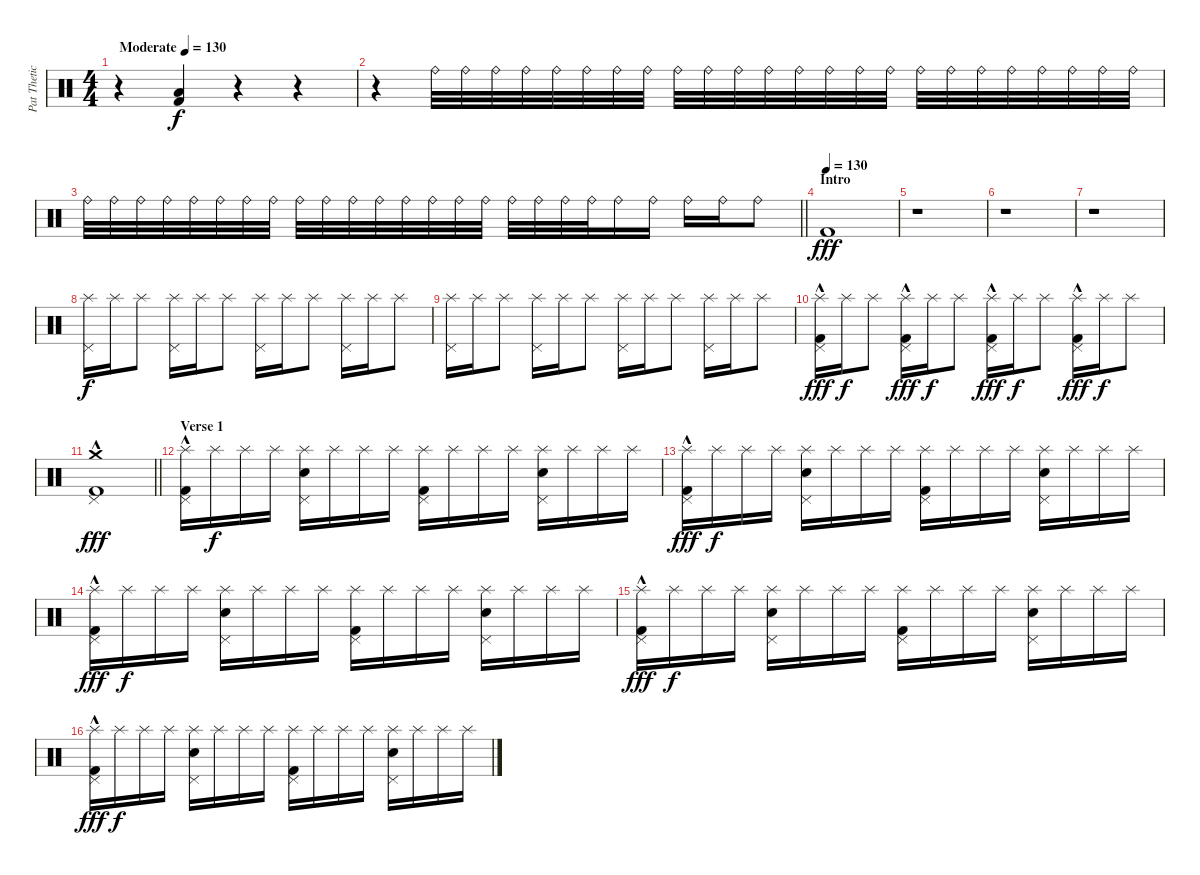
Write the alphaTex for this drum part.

\track ("Pat Thetic Drums" "Pat Thetic") {instrument percussion}
\staff {score}
\articulation defaults
\ts (4 4)
\tempo (130 "Moderate")
\tempo 100
\tempo (130 "Moderate")
\clef neutral
\ks c
r.4{dy f} ("Kick (hit) 2" "Low Floor Tom (hit)").4 r.4 r.4 |
r.4{volume 0} "Ride (bell)".32{volume 10} "Ride (bell)".32 "Ride (bell)".32 "Ride (bell)".32 "Ride (bell)".32 "Ride (bell)".32 "Ride (bell)".32 "Ride (bell)".32 "Ride (bell)".32 "Ride (bell)".32 "Ride (bell)".32 "Ride (bell)".32 "Ride (bell)".32 "Ride (bell)".32 "Ride (bell)".32 "Ride (bell)".32 "Ride (bell)".32 "Ride (bell)".32 "Ride (bell)".32 "Ride (bell)".32 "Ride (bell)".32 "Ride (bell)".32 "Ride (bell)".32 "Ride (bell)".32 |
\barLineRight lightlight "Ride (bell)".32 "Ride (bell)".32 "Ride (bell)".32 "Ride (bell)".32 "Ride (bell)".32 "Ride (bell)".32 "Ride (bell)".32 "Ride (bell)".32 "Ride (bell)".32 "Ride (bell)".32 "Ride (bell)".32 "Ride (bell)".32 "Ride (bell)".32 "Ride (bell)".32 "Ride (bell)".32 "Ride (bell)".32 "Ride (bell)".32 "Ride (bell)".32 "Ride (bell)".32 "Ride (bell)".32 "Ride (bell)".16 "Ride (bell)".16 "Ride (bell)".16 "Ride (bell)".16 "Ride (bell)".8
|
\section ("" "Intro")
\tempo (130)
"Kick (hit) 2".1{dy fff} |
r.1 |
r.1 |
r.1 |
("Splash (hit)" "Pedal Hi-Hat (hit)").16{dy f volume 16} "Splash (hit)".16 "Splash (hit)".8 ("Splash (hit)" "Pedal Hi-Hat (hit)").16 "Splash (hit)".16 "Splash (hit)".8 ("Splash (hit)" "Pedal Hi-Hat (hit)").16 "Splash (hit)".16 "Splash (hit)".8 ("Splash (hit)" "Pedal Hi-Hat (hit)").16 "Splash (hit)".16 "Splash (hit)".8 |
("Splash (hit)" "Pedal Hi-Hat (hit)").16 "Splash (hit)".16 "Splash (hit)".8 ("Splash (hit)" "Pedal Hi-Hat (hit)").16 "Splash (hit)".16 "Splash (hit)".8 ("Splash (hit)" "Pedal Hi-Hat (hit)").16 "Splash (hit)".16 "Splash (hit)".8 ("Splash (hit)" "Pedal Hi-Hat (hit)").16 "Splash (hit)".16 "Splash (hit)".8 |
("Splash (hit)" "Pedal Hi-Hat (hit)" "Kick (hit) 2"{hac}).16{dy fff} "Splash (hit)".16{dy f} "Splash (hit)".8 ("Splash (hit)" "Pedal Hi-Hat (hit)" "Kick (hit) 2"{hac}).16{dy fff} "Splash (hit)".16{dy f} "Splash (hit)".8 ("Splash (hit)" "Pedal Hi-Hat (hit)" "Kick (hit) 2"{hac}).16{dy fff} "Splash (hit)".16{dy f} "Splash (hit)".8 ("Splash (hit)" "Pedal Hi-Hat (hit)" "Kick (hit) 2"{hac}).16{dy fff} "Splash (hit)".16{dy f} "Splash (hit)".8 |
\barLineRight lightlight
("Pedal Hi-Hat (hit)" "Crash medium (hit)" "Kick (hit) 2"{hac}).1{dy fff} |
\section ("" "Verse 1")
("Splash (hit)" "Pedal Hi-Hat (hit)" "Kick (hit) 2"{hac}).16 "Splash (hit)".16{dy f} "Splash (hit)".16 "Splash (hit)".16 ("Splash (hit)" "Pedal Hi-Hat (hit)" "Snare (hit) 2").16 "Splash (hit)".16 "Splash (hit)".16 "Splash (hit)".16 ("Splash (hit)" "Pedal Hi-Hat (hit)" "Kick (hit) 2").16 "Splash (hit)".16 "Splash (hit)".16 "Splash (hit)".16 ("Splash (hit)" "Pedal Hi-Hat (hit)" "Snare (hit) 2").16 "Splash (hit)".16 "Splash (hit)".16 "Splash (hit)".16 |
("Splash (hit)" "Pedal Hi-Hat (hit)" "Kick (hit) 2"{hac}).16{dy fff} "Splash (hit)".16{dy f} "Splash (hit)".16 "Splash (hit)".16 ("Splash (hit)" "Pedal Hi-Hat (hit)" "Snare (hit) 2").16 "Splash (hit)".16 "Splash (hit)".16 "Splash (hit)".16 ("Splash (hit)" "Pedal Hi-Hat (hit)" "Kick (hit) 2").16 "Splash (hit)".16 "Splash (hit)".16 "Splash (hit)".16 ("Splash (hit)" "Pedal Hi-Hat (hit)" "Snare (hit) 2").16 "Splash (hit)".16 "Splash (hit)".16 "Splash (hit)".16 |
("Splash (hit)" "Pedal Hi-Hat (hit)" "Kick (hit) 2"{hac}).16{dy fff} "Splash (hit)".16{dy f} "Splash (hit)".16 "Splash (hit)".16 ("Splash (hit)" "Pedal Hi-Hat (hit)" "Snare (hit) 2").16 "Splash (hit)".16 "Splash (hit)".16 "Splash (hit)".16 ("Splash (hit)" "Pedal Hi-Hat (hit)" "Kick (hit) 2").16 "Splash (hit)".16 "Splash (hit)".16 "Splash (hit)".16 ("Splash (hit)" "Pedal Hi-Hat (hit)" "Snare (hit) 2").16 "Splash (hit)".16 "Splash (hit)".16 "Splash (hit)".16 |
("Splash (hit)" "Pedal Hi-Hat (hit)" "Kick (hit) 2"{hac}).16{dy fff} "Splash (hit)".16{dy f} "Splash (hit)".16 "Splash (hit)".16 ("Splash (hit)" "Pedal Hi-Hat (hit)" "Snare (hit) 2").16 "Splash (hit)".16 "Splash (hit)".16 "Splash (hit)".16 ("Splash (hit)" "Pedal Hi-Hat (hit)" "Kick (hit) 2").16 "Splash (hit)".16 "Splash (hit)".16 "Splash (hit)".16 ("Splash (hit)" "Pedal Hi-Hat (hit)" "Snare (hit) 2").16 "Splash (hit)".16 "Splash (hit)".16 "Splash (hit)".16 |
("Splash (hit)" "Pedal Hi-Hat (hit)" "Kick (hit) 2"{hac}).16{dy fff} "Splash (hit)".16{dy f} "Splash (hit)".16 "Splash (hit)".16 ("Splash (hit)" "Pedal Hi-Hat (hit)" "Snare (hit) 2").16 "Splash (hit)".16 "Splash (hit)".16 "Splash (hit)".16 ("Splash (hit)" "Pedal Hi-Hat (hit)" "Kick (hit) 2").16 "Splash (hit)".16 "Splash (hit)".16 "Splash (hit)".16 ("Splash (hit)" "Pedal Hi-Hat (hit)" "Snare (hit) 2").16 "Splash (hit)".16 "Splash (hit)".16 "Splash (hit)".16
